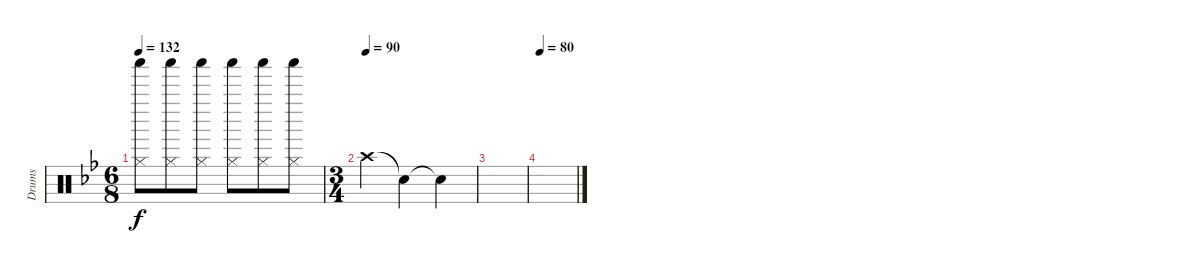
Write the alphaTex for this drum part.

\track ("Drums" "Drums") {instrument percussion}
\staff {score}
\articulation defaults
\ts (6 8)
\tempo 132
\clef neutral
\ks bb
("Shaker (hit)" "Hi-Hat (closed)").8{dy f} ("Shaker (hit)" "Hi-Hat (closed)").8 ("Shaker (hit)" "Hi-Hat (closed)").8 ("Shaker (hit)" "Hi-Hat (closed)").8 ("Shaker (hit)" "Hi-Hat (closed)").8 ("Shaker (hit)" "Hi-Hat (closed)").8 |
\ts (3 4)
\tempo (90)
"Crash high (hit)".4 "Snare (hit)"{t}.4 "Snare (hit)"{t}.4 |
|
\tempo 80
